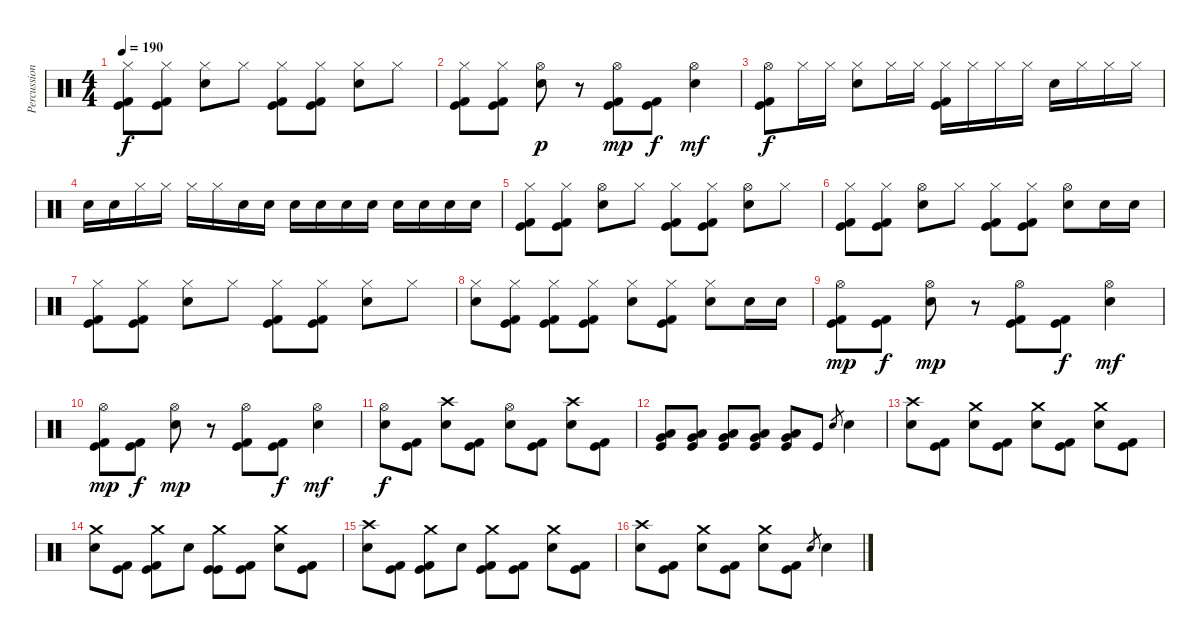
\track ("Percussions" "Percussion") {instrument percussion}
\staff {score}
\articulation defaults
\ts (4 4)
\tempo 190
\clef neutral
\ks c
("Hi-Hat (closed)" "Kick (hit)" "Kick (hit) 2").8{dy f} ("Hi-Hat (closed)" "Kick (hit)" "Kick (hit) 2").8 ("Hi-Hat (closed)" "Electric Snare (hit)").8 "Hi-Hat (closed)".8 ("Hi-Hat (closed)" "Kick (hit)" "Kick (hit) 2").8 ("Hi-Hat (closed)" "Kick (hit)" "Kick (hit) 2").8 ("Hi-Hat (closed)" "Electric Snare (hit)").8 "Hi-Hat (closed)".8 |
("Hi-Hat (closed)" "Kick (hit)" "Kick (hit) 2").8 ("Hi-Hat (closed)" "Kick (hit)" "Kick (hit) 2").8 ("Hi-Hat (open)" "Electric Snare (hit)").8{dy p} r.8 ("Hi-Hat (open)" "Kick (hit)" "Kick (hit) 2").8{dy mp} ("Kick (hit)" "Kick (hit) 2").8{dy f} ("Hi-Hat (open)" "Electric Snare (hit)").4{dy mf} |
("Hi-Hat (open)" "Kick (hit)" "Kick (hit) 2").8{dy f} "Hi-Hat (closed)".16 "Hi-Hat (closed)".16 ("Hi-Hat (closed)" "Electric Snare (hit)").8 "Hi-Hat (closed)".16 "Hi-Hat (closed)".16 ("Hi-Hat (closed)" "Kick (hit)" "Kick (hit) 2").16 "Hi-Hat (closed)".16 "Hi-Hat (closed)".16 "Hi-Hat (closed)".16 "Electric Snare (hit)".16 "Hi-Hat (closed)".16 "Hi-Hat (closed)".16 "Hi-Hat (closed)".16 |
"Electric Snare (hit)".16 "Electric Snare (hit)".16 "Hi-Hat (closed)".16 "Hi-Hat (closed)".16 "Hi-Hat (closed)".16 "Hi-Hat (closed)".16 "Electric Snare (hit)".16 "Electric Snare (hit)".16 "Electric Snare (hit)".16 "Electric Snare (hit)".16 "Electric Snare (hit)".16 "Electric Snare (hit)".16 "Electric Snare (hit)".16 "Electric Snare (hit)".16 "Electric Snare (hit)".16 "Electric Snare (hit)".16 |
("Hi-Hat (closed)" "Kick (hit)" "Kick (hit) 2").8 ("Hi-Hat (closed)" "Kick (hit)" "Kick (hit) 2").8 ("Hi-Hat (open)" "Electric Snare (hit)").8 "Hi-Hat (closed)".8 ("Hi-Hat (closed)" "Kick (hit)" "Kick (hit) 2").8 ("Hi-Hat (closed)" "Kick (hit)" "Kick (hit) 2").8 ("Hi-Hat (open)" "Electric Snare (hit)").8 "Hi-Hat (closed)".8 |
("Hi-Hat (closed)" "Kick (hit)" "Kick (hit) 2").8 ("Hi-Hat (closed)" "Kick (hit)" "Kick (hit) 2").8 ("Hi-Hat (open)" "Electric Snare (hit)").8 "Hi-Hat (closed)".8 ("Hi-Hat (closed)" "Kick (hit)" "Kick (hit) 2").8 ("Hi-Hat (closed)" "Kick (hit)" "Kick (hit) 2").8 ("Hi-Hat (open)" "Electric Snare (hit)").8 "Electric Snare (hit)".16 "Electric Snare (hit)".16 |
("Hi-Hat (closed)" "Kick (hit)" "Kick (hit) 2").8 ("Hi-Hat (closed)" "Kick (hit)" "Kick (hit) 2").8 ("Hi-Hat (closed)" "Electric Snare (hit)").8 "Hi-Hat (closed)".8 ("Hi-Hat (closed)" "Kick (hit)" "Kick (hit) 2").8 ("Hi-Hat (closed)" "Kick (hit)" "Kick (hit) 2").8 ("Hi-Hat (closed)" "Electric Snare (hit)").8 "Hi-Hat (closed)".8 |
("Hi-Hat (closed)" "Electric Snare (hit)").8 ("Hi-Hat (closed)" "Kick (hit)" "Kick (hit) 2").8 ("Hi-Hat (closed)" "Kick (hit)" "Kick (hit) 2").8 ("Hi-Hat (closed)" "Kick (hit)" "Kick (hit) 2").8 ("Hi-Hat (closed)" "Electric Snare (hit)").8 ("Hi-Hat (closed)" "Kick (hit)" "Kick (hit) 2").8 ("Hi-Hat (closed)" "Electric Snare (hit)").8 "Electric Snare (hit)".16 "Electric Snare (hit)".16 |
("Hi-Hat (open)" "Kick (hit)" "Kick (hit) 2").8{dy mp} ("Kick (hit)" "Kick (hit) 2").8{dy f} ("Hi-Hat (open)" "Electric Snare (hit)").8{dy mp} r.8 ("Hi-Hat (open)" "Kick (hit)" "Kick (hit) 2").8 ("Kick (hit)" "Kick (hit) 2").8{dy f} ("Hi-Hat (open)" "Electric Snare (hit)").4{dy mf} |
("Hi-Hat (open)" "Kick (hit)" "Kick (hit) 2").8{dy mp} ("Kick (hit)" "Kick (hit) 2").8{dy f} ("Hi-Hat (open)" "Electric Snare (hit)").8{dy mp} r.8 ("Hi-Hat (open)" "Kick (hit)" "Kick (hit) 2").8 ("Kick (hit)" "Kick (hit) 2").8{dy f} ("Hi-Hat (open)" "Electric Snare (hit)").4{dy mf} |
("Hi-Hat (open)" "Electric Snare (hit)").8{dy f} ("Kick (hit)" "Kick (hit) 2").8 ("Crash high (hit)" "Electric Snare (hit)").8 ("Kick (hit)" "Kick (hit) 2").8 ("Hi-Hat (open)" "Electric Snare (hit)").8 ("Kick (hit)" "Kick (hit) 2").8 ("Crash high (hit)" "Electric Snare (hit)").8 ("Kick (hit)" "Kick (hit) 2").8 |
("Very Low Tom (hit)" "Low Floor Tom (hit)" "Kick (hit)").8 ("Very Low Tom (hit)" "Low Floor Tom (hit)" "Kick (hit)").8 ("Very Low Tom (hit)" "Low Floor Tom (hit)" "Kick (hit)").8 ("Very Low Tom (hit)" "Low Floor Tom (hit)" "Kick (hit)").8 ("Very Low Tom (hit)" "Low Floor Tom (hit)" "Kick (hit)").8 "Kick (hit)".8 "Electric Snare (hit)".8{gr} "Electric Snare (hit)".4 |
("Crash high (hit)" "Electric Snare (hit)").8 ("Kick (hit)" "Kick (hit) 2").8 ("Crash medium (hit)" "Electric Snare (hit)").8 ("Kick (hit)" "Kick (hit) 2").8 ("Crash medium (hit)" "Electric Snare (hit)").8 ("Kick (hit)" "Kick (hit) 2").8 ("Crash medium (hit)" "Electric Snare (hit)").8 ("Kick (hit)" "Kick (hit) 2").8 |
("Crash medium (hit)" "Electric Snare (hit)").8 ("Kick (hit)" "Kick (hit) 2").8 ("Crash medium (hit)" "Kick (hit)" "Kick (hit) 2").8 "Electric Snare (hit)".8 ("Crash medium (hit)" "Kick (hit)" "Kick (hit)").8 ("Kick (hit)" "Kick (hit) 2").8 ("Crash medium (hit)" "Electric Snare (hit)").8 ("Kick (hit)" "Kick (hit) 2").8 |
("Crash high (hit)" "Electric Snare (hit)").8 ("Kick (hit)" "Kick (hit) 2").8 ("Crash medium (hit)" "Kick (hit)" "Kick (hit) 2").8 "Electric Snare (hit)".8 ("Crash medium (hit)" "Kick (hit)" "Kick (hit) 2").8 ("Kick (hit)" "Kick (hit) 2").8 ("Crash medium (hit)" "Electric Snare (hit)").8 ("Kick (hit)" "Kick (hit) 2").8 |
("Crash high (hit)" "Electric Snare (hit)").8 ("Kick (hit)" "Kick (hit) 2").8 ("Crash medium (hit)" "Electric Snare (hit)").8 ("Kick (hit)" "Kick (hit) 2").8 ("Crash medium (hit)" "Electric Snare (hit)").8 ("Kick (hit)" "Kick (hit) 2").8 "Electric Snare (hit)".8{gr} "Electric Snare (hit)".4
